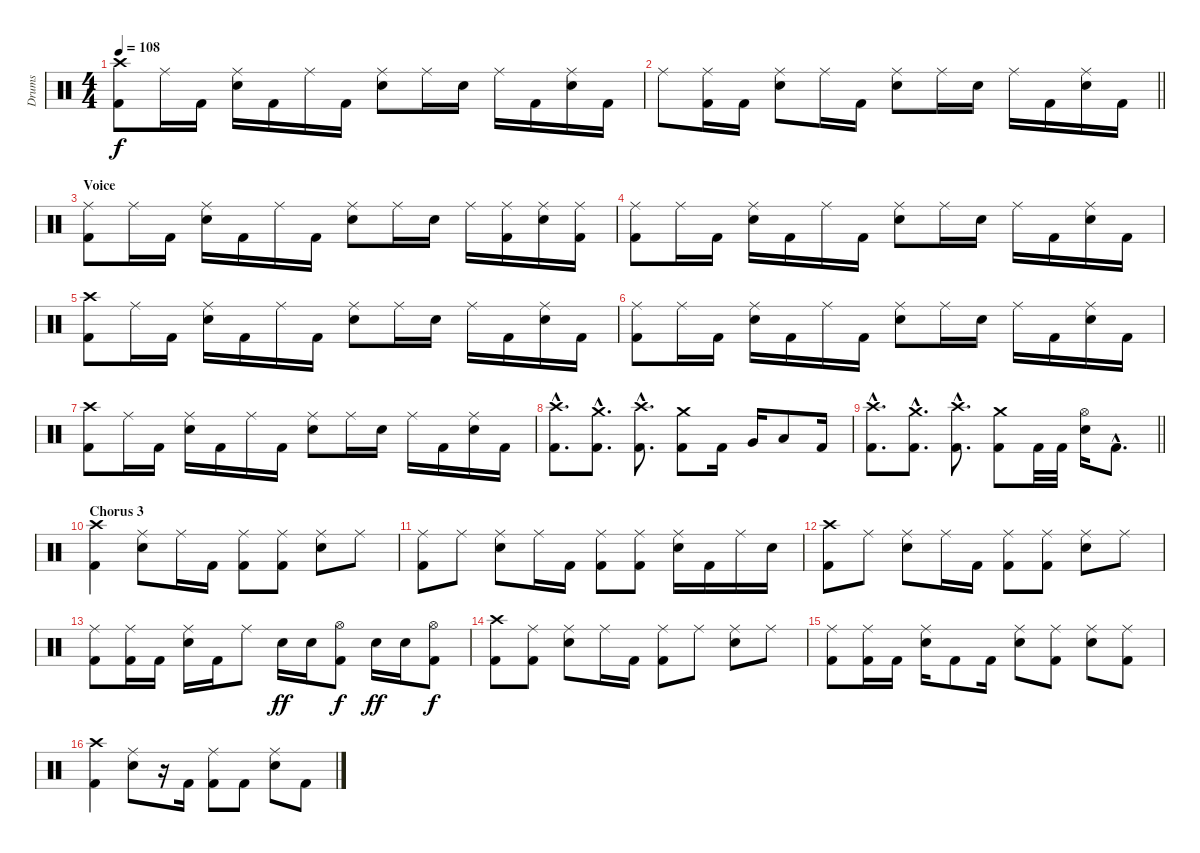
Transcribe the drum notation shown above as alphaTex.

\track ("Drums" "Drums") {instrument percussion}
\staff {score}
\articulation defaults
\ts (4 4)
\tempo 108
\clef neutral
\ks c
("Crash high (hit)" "Kick (hit) 2").8{dy f} "Ride (middle)".16 "Kick (hit) 2".16 ("Ride (middle)" "Snare (hit) 2").16 "Kick (hit) 2".16 "Ride (middle)".16 "Kick (hit) 2".16 ("Ride (middle)" "Snare (hit) 2").8 "Ride (middle)".16 "Snare (hit) 2".16 "Ride (middle)".16 "Kick (hit) 2".16 ("Ride (middle)" "Snare (hit) 2").16 "Kick (hit) 2".16 |
\barLineRight lightlight "Ride (middle)".8
("Ride (middle)" "Kick (hit) 2").16 "Kick (hit) 2".16 ("Ride (middle)" "Snare (hit) 2").8 "Ride (middle)".16 "Kick (hit) 2".16 ("Ride (middle)" "Snare (hit) 2").8 "Ride (middle)".16 "Snare (hit) 2".16 "Ride (middle)".16 "Kick (hit) 2".16 ("Ride (middle)" "Snare (hit) 2").16 "Kick (hit) 2".16 |
\section ("" "Voice")
("Ride (middle)" "Kick (hit) 2").8 "Ride (middle)".16 "Kick (hit) 2".16 ("Ride (middle)" "Snare (hit) 2").16 "Kick (hit) 2".16 "Ride (middle)".16 "Kick (hit) 2".16 ("Ride (middle)" "Snare (hit) 2").8 "Ride (middle)".16 "Snare (hit) 2".16 "Ride (middle)".16 ("Ride (middle)" "Kick (hit) 2").16 ("Ride (middle)" "Snare (hit) 2").16 ("Ride (middle)" "Kick (hit) 2").16 |
("Ride (middle)" "Kick (hit) 2").8 "Ride (middle)".16 "Kick (hit) 2".16 ("Ride (middle)" "Snare (hit) 2").16 "Kick (hit) 2".16 "Ride (middle)".16 "Kick (hit) 2".16 ("Ride (middle)" "Snare (hit) 2").8 "Ride (middle)".16 "Snare (hit) 2".16 "Ride (middle)".16 "Kick (hit) 2".16 ("Ride (middle)" "Snare (hit) 2").16 "Kick (hit) 2".16 |
("Crash high (hit)" "Kick (hit) 2").8 "Ride (middle)".16 "Kick (hit) 2".16 ("Ride (middle)" "Snare (hit) 2").16 "Kick (hit) 2".16 "Ride (middle)".16 "Kick (hit) 2".16 ("Ride (middle)" "Snare (hit) 2").8 "Ride (middle)".16 "Snare (hit) 2".16 "Ride (middle)".16 "Kick (hit) 2".16 ("Ride (middle)" "Snare (hit) 2").16 "Kick (hit) 2".16 |
("Ride (middle)" "Kick (hit) 2").8 "Ride (middle)".16 "Kick (hit) 2".16 ("Ride (middle)" "Snare (hit) 2").16 "Kick (hit) 2".16 "Ride (middle)".16 "Kick (hit) 2".16 ("Ride (middle)" "Snare (hit) 2").8 "Ride (middle)".16 "Snare (hit) 2".16 "Ride (middle)".16 "Kick (hit) 2".16 ("Ride (middle)" "Snare (hit) 2").16 "Kick (hit) 2".16 |
("Crash high (hit)" "Kick (hit) 2").8 "Ride (middle)".16 "Kick (hit) 2".16 ("Ride (middle)" "Snare (hit) 2").16 "Kick (hit) 2".16 "Ride (middle)".16 "Kick (hit) 2".16 ("Ride (middle)" "Snare (hit) 2").8 "Ride (middle)".16 "Snare (hit) 2".16 "Ride (middle)".16 "Kick (hit) 2".16 ("Ride (middle)" "Snare (hit) 2").16 "Kick (hit) 2".16 |
("Crash high (hit)"{hac} "Kick (hit) 2"{hac}).8{d} ("Crash medium (hit)"{hac} "Kick (hit) 2"{hac}).8{d} ("Crash high (hit)"{hac} "Kick (hit) 2"{hac}).8{d} ("Crash medium (hit)" "Kick (hit) 2").8 "Kick (hit) 2".16 "Very Low Tom (hit)".16 "Low Tom (hit)".8 "Kick (hit) 2".16 |
\barLineRight lightlight
("Crash high (hit)"{hac} "Kick (hit) 2"{hac}).8{d} ("Crash medium (hit)"{hac} "Kick (hit) 2"{hac}).8{d} ("Crash high (hit)"{hac} "Kick (hit) 2"{hac}).8{d} ("Crash medium (hit)" "Kick (hit) 2").8 "Kick (hit) 2".32 "Kick (hit) 2".32 ("Hi-Hat (open)" "Snare (hit) 2").16 "Kick (hit) 2"{hac}.8{d} |
\section ("" "Chorus 3")
("Crash high (hit)" "Kick (hit) 2").4 ("Ride (middle)" "Snare (hit) 2").8 "Ride (middle)".16 "Kick (hit) 2".16 ("Ride (middle)" "Kick (hit) 2").8 ("Ride (middle)" "Kick (hit) 2").8 ("Ride (middle)" "Snare (hit) 2").8 "Ride (middle)".8 |
("Ride (middle)" "Kick (hit) 2").8 "Ride (middle)".8 ("Ride (middle)" "Snare (hit) 2").8 "Ride (middle)".16 "Kick (hit) 2".16 ("Ride (middle)" "Kick (hit) 2").8 ("Ride (middle)" "Kick (hit) 2").8 ("Ride (middle)" "Snare (hit) 2").16 "Kick (hit) 2".16 "Ride (middle)".16 "Snare (hit) 2".16 |
("Crash high (hit)" "Kick (hit) 2").8 "Ride (middle)".8 ("Ride (middle)" "Snare (hit) 2").8 "Ride (middle)".16 "Kick (hit) 2".16 ("Ride (middle)" "Kick (hit) 2").8 ("Ride (middle)" "Kick (hit) 2").8 ("Ride (middle)" "Snare (hit) 2").8 "Ride (middle)".8 |
("Ride (middle)" "Kick (hit) 2").8 ("Ride (middle)" "Kick (hit) 2").16 "Kick (hit) 2".16 ("Ride (middle)" "Snare (hit) 2").16 "Kick (hit) 2".16 "Ride (middle)".8 "Snare (hit) 2".16{dy ff} "Snare (hit) 2".16 ("Hi-Hat (open)" "Kick (hit) 2").8{dy f} "Snare (hit) 2".16{dy ff} "Snare (hit) 2".16 ("Hi-Hat (open)" "Kick (hit) 2").8{dy f} |
("Crash high (hit)" "Kick (hit) 2").8 ("Ride (middle)" "Kick (hit) 2").8 ("Ride (middle)" "Snare (hit) 2").8 "Ride (middle)".16 "Kick (hit) 2".16 ("Ride (middle)" "Kick (hit) 2").8 "Ride (middle)".8 ("Ride (middle)" "Snare (hit) 2").8 "Ride (middle)".8 |
("Ride (middle)" "Kick (hit) 2").8 ("Ride (middle)" "Kick (hit) 2").16 "Kick (hit) 2".16 ("Ride (middle)" "Snare (hit) 2").16 "Kick (hit) 2".8 "Kick (hit) 2".16 ("Ride (middle)" "Snare (hit) 2").8 ("Ride (middle)" "Kick (hit) 2").8 ("Ride (middle)" "Snare (hit) 2").8 ("Ride (middle)" "Kick (hit) 2").8 |
("Crash high (hit)" "Kick (hit) 2").4 ("Ride (middle)" "Snare (hit) 2").8 r.16 "Kick (hit) 2".16 ("Ride (middle)" "Kick (hit) 2").8 "Kick (hit) 2".8 ("Ride (middle)" "Snare (hit) 2").8 "Kick (hit) 2".8
